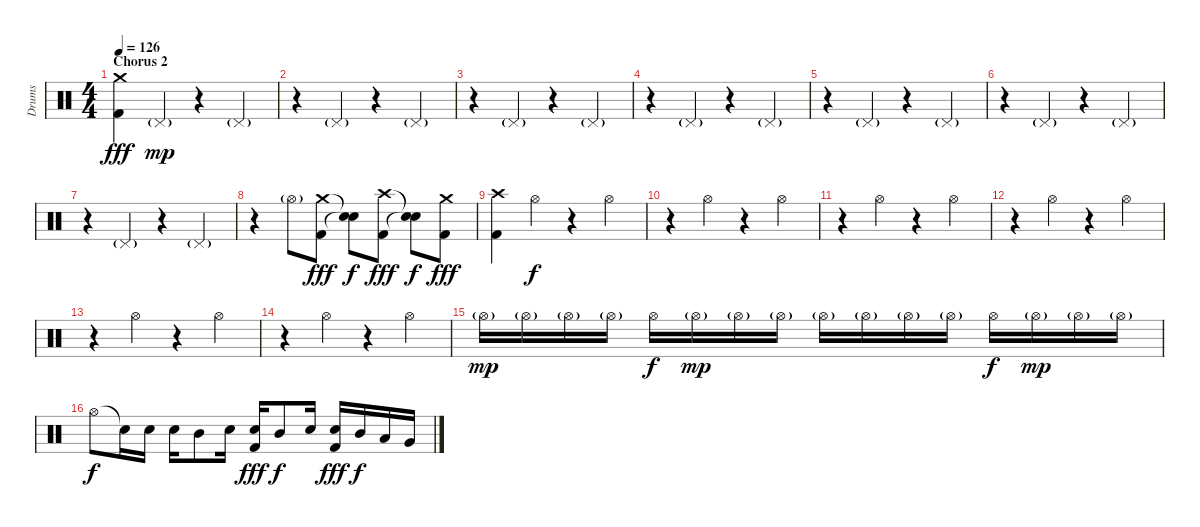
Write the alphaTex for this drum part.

\track ("Drums" "Drums") {instrument percussion}
\staff {score}
\articulation defaults
\ts (4 4)
\section ("" "Chorus 2")
\tempo 126
\clef neutral
\ks c
("Crash medium (hit)" "Kick (hit) 2").4{dy fff} "Pedal Hi-Hat (hit)"{g}.4{dy mp} r.4 "Pedal Hi-Hat (hit)"{g}.4 |
r.4 "Pedal Hi-Hat (hit)"{g}.4 r.4 "Pedal Hi-Hat (hit)"{g}.4 |
r.4 "Pedal Hi-Hat (hit)"{g}.4 r.4 "Pedal Hi-Hat (hit)"{g}.4 |
r.4 "Pedal Hi-Hat (hit)"{g}.4 r.4 "Pedal Hi-Hat (hit)"{g}.4 |
r.4 "Pedal Hi-Hat (hit)"{g}.4 r.4 "Pedal Hi-Hat (hit)"{g}.4 |
r.4 "Pedal Hi-Hat (hit)"{g}.4 r.4 "Pedal Hi-Hat (hit)"{g}.4 |
r.4 "Pedal Hi-Hat (hit)"{g}.4 r.4 "Pedal Hi-Hat (hit)"{g}.4 |
r.4 "Hi-Hat (open)"{g}.8 ("Crash medium (hit)" "Kick (hit) 2").8{dy fff} ("Snare (hit)"{t} "Snare (hit)"{t}).8{dy f} ("Crash high (hit)" "Kick (hit) 2").8{dy fff} ("Snare (hit)"{t} "Snare (hit)"{t}).8{dy f} ("Crash medium (hit)" "Kick (hit) 2").8{dy fff} |
("Crash high (hit)" "Kick (hit) 2").4 "Hi-Hat (open)".4{dy f} r.4 "Hi-Hat (open)".4 |
r.4 "Hi-Hat (open)".4 r.4 "Hi-Hat (open)".4 |
r.4 "Hi-Hat (open)".4 r.4 "Hi-Hat (open)".4 |
r.4 "Hi-Hat (open)".4 r.4 "Hi-Hat (open)".4 |
r.4 "Hi-Hat (open)".4 r.4 "Hi-Hat (open)".4 |
r.4 "Hi-Hat (open)".4 r.4 "Hi-Hat (open)".4 |
"Hi-Hat (open)"{g}.16{dy mp} "Hi-Hat (open)"{g}.16 "Hi-Hat (open)"{g}.16 "Hi-Hat (open)"{g}.16 "Hi-Hat (open)".16{dy f} "Hi-Hat (open)"{g}.16{dy mp} "Hi-Hat (open)"{g}.16 "Hi-Hat (open)"{g}.16 "Hi-Hat (open)"{g}.16 "Hi-Hat (open)"{g}.16 "Hi-Hat (open)"{g}.16 "Hi-Hat (open)"{g}.16 "Hi-Hat (open)".16{dy f} "Hi-Hat (open)"{g}.16{dy mp} "Hi-Hat (open)"{g}.16 "Hi-Hat (open)"{g}.16 |
"Hi-Hat (open)".8{dy f} "Snare (hit)"{t}.16 "Snare (hit) 2".16 "Snare (hit) 2".16 "Mid Tom (hit)".8 "Snare (hit) 2".16 ("Snare (hit) 2" "Kick (hit) 2").16{dy fff} "Mid Tom (hit)".8{dy f} "Snare (hit) 2".16 ("Snare (hit) 2" "Kick (hit) 2").16{dy fff} "Mid Tom (hit)".16{dy f} "Low Tom (hit)".16 "Very Low Tom (hit)".16
